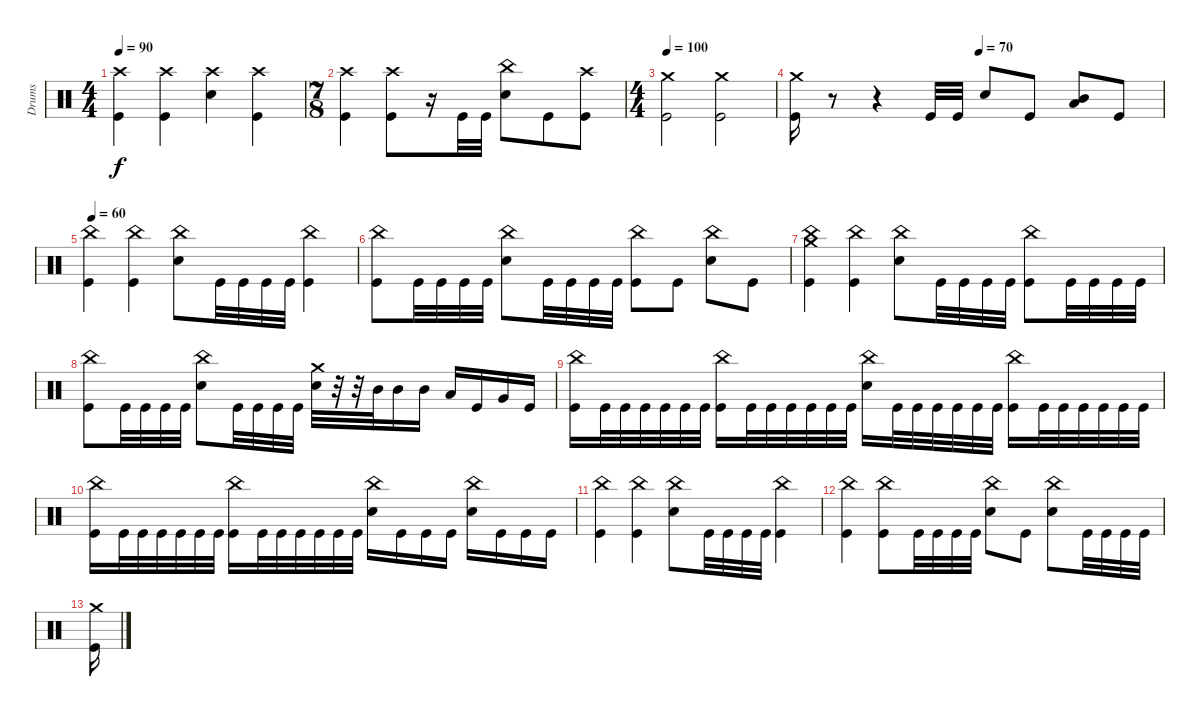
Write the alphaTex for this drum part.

\track ("Drums" "Drums") {instrument percussion}
\staff {score}
\articulation defaults
\ts (4 4)
\tempo 90
\clef neutral
\ks c
("Crash high (hit)" "Kick (hit)").4{dy f} ("Crash high (hit)" "Kick (hit)").4 ("Crash high (hit)" "Electric Snare (hit)").4 ("Crash high (hit)" "Kick (hit)").4 |
\ts (7 8)
("Crash high (hit)" "Kick (hit)").4 ("Crash high (hit)" "Kick (hit)").8 r.16 "Kick (hit)".32 "Kick (hit)".32 ("China (hit)" "Electric Snare (hit)").8 "Kick (hit)".8 ("Crash high (hit)" "Kick (hit)").8 |
\ts (4 4)
\tempo 100
("Crash medium (hit)" "Kick (hit)").2 ("Crash medium (hit)" "Kick (hit)").2 |
\tempo (70 0.5)
("Crash medium (hit)" "Kick (hit)").16 r.8 r.4 "Kick (hit)".32 "Kick (hit)".32 "Electric Snare (hit)".8 "Kick (hit)".8 ("Mid Tom (hit)" "Low Tom (hit)").8 "Kick (hit)".8 |
\tempo 60
("China (hit)" "Kick (hit)").4 ("China (hit)" "Kick (hit)").4 ("China (hit)" "Electric Snare (hit)").8 "Kick (hit)".32 "Kick (hit)".32 "Kick (hit)".32 "Kick (hit)".32 ("China (hit)" "Kick (hit)").4 |
("China (hit)" "Kick (hit)").8 "Kick (hit)".32 "Kick (hit)".32 "Kick (hit)".32 "Kick (hit)".32 ("China (hit)" "Electric Snare (hit)").8 "Kick (hit)".32 "Kick (hit)".32 "Kick (hit)".32 "Kick (hit)".32 ("China (hit)" "Kick (hit)").8 "Kick (hit)".8 ("China (hit)" "Electric Snare (hit)").8 "Kick (hit)".8 |
("Crash medium (hit)" "China (hit)" "Kick (hit)").4 ("China (hit)" "Kick (hit)").4 ("China (hit)" "Electric Snare (hit)").8 "Kick (hit)".32 "Kick (hit)".32 "Kick (hit)".32 "Kick (hit)".32 ("China (hit)" "Kick (hit)").8 "Kick (hit)".32 "Kick (hit)".32 "Kick (hit)".32 "Kick (hit)".32 |
("China (hit)" "Kick (hit)").8 "Kick (hit)".32 "Kick (hit)".32 "Kick (hit)".32 "Kick (hit)".32 ("China (hit)" "Electric Snare (hit)").8 "Kick (hit)".32 "Kick (hit)".32 "Kick (hit)".32 "Kick (hit)".32 ("Crash medium (hit)" "Electric Snare (hit)").32 r.32 r.32 "Mid Tom (hit)".32 "Mid Tom (hit)".16 "Mid Tom (hit)".16 "Low Tom (hit)".16 "Kick (hit)".16 "Very Low Tom (hit)".16 "Kick (hit)".16 |
("China (hit)" "Kick (hit)").16 "Kick (hit)".32 "Kick (hit)".32 "Kick (hit)".32 "Kick (hit)".32 "Kick (hit)".32 "Kick (hit)".32 ("China (hit)" "Kick (hit)").16 "Kick (hit)".32 "Kick (hit)".32 "Kick (hit)".32 "Kick (hit)".32 "Kick (hit)".32 "Kick (hit)".32 ("China (hit)" "Electric Snare (hit)").16 "Kick (hit)".32 "Kick (hit)".32 "Kick (hit)".32 "Kick (hit)".32 "Kick (hit)".32 "Kick (hit)".32 ("China (hit)" "Kick (hit)").16 "Kick (hit)".32 "Kick (hit)".32 "Kick (hit)".32 "Kick (hit)".32 "Kick (hit)".32 "Kick (hit)".32 |
("China (hit)" "Kick (hit)").16 "Kick (hit)".32 "Kick (hit)".32 "Kick (hit)".32 "Kick (hit)".32 "Kick (hit)".32 "Kick (hit)".32 ("China (hit)" "Kick (hit)").16 "Kick (hit)".32 "Kick (hit)".32 "Kick (hit)".32 "Kick (hit)".32 "Kick (hit)".32 "Kick (hit)".32 ("China (hit)" "Electric Snare (hit)").16 "Kick (hit)".16 "Kick (hit)".16 "Kick (hit)".16 ("China (hit)" "Electric Snare (hit)").16 "Kick (hit)".16 "Kick (hit)".16 "Kick (hit)".16 |
("China (hit)" "Kick (hit)").4 ("China (hit)" "Kick (hit)").4 ("China (hit)" "Electric Snare (hit)").8 "Kick (hit)".32 "Kick (hit)".32 "Kick (hit)".32 "Kick (hit)".32 ("China (hit)" "Kick (hit)").4 |
("China (hit)" "Kick (hit)").4 ("China (hit)" "Kick (hit)").8 "Kick (hit)".32 "Kick (hit)".32 "Kick (hit)".32 "Kick (hit)".32 ("China (hit)" "Electric Snare (hit)").8 "Kick (hit)".8 ("China (hit)" "Electric Snare (hit)").8 "Kick (hit)".32 "Kick (hit)".32 "Kick (hit)".32 "Kick (hit)".32 |
("Crash medium (hit)" "Kick (hit)").16
